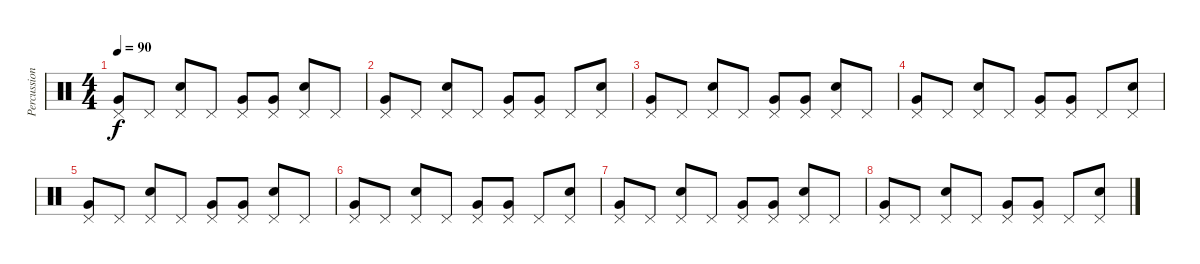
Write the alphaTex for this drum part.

\track ("Percussion" "Percussion") {instrument percussion}
\staff {score}
\articulation defaults
\ts (4 4)
\tempo 90
\clef neutral
\ks c
("Pedal Hi-Hat (hit)" "Very Low Tom (hit)").8{dy f} "Pedal Hi-Hat (hit)".8 ("Pedal Hi-Hat (hit)" "Snare (hit) 2").8 "Pedal Hi-Hat (hit)".8 ("Pedal Hi-Hat (hit)" "Very Low Tom (hit)").8 ("Pedal Hi-Hat (hit)" "Very Low Tom (hit)").8 ("Pedal Hi-Hat (hit)" "Snare (hit) 2").8 "Pedal Hi-Hat (hit)".8 |
("Pedal Hi-Hat (hit)" "Very Low Tom (hit)").8 "Pedal Hi-Hat (hit)".8 ("Pedal Hi-Hat (hit)" "Snare (hit) 2").8 "Pedal Hi-Hat (hit)".8 ("Pedal Hi-Hat (hit)" "Very Low Tom (hit)").8 ("Pedal Hi-Hat (hit)" "Very Low Tom (hit)").8 "Pedal Hi-Hat (hit)".8 ("Pedal Hi-Hat (hit)" "Snare (hit) 2").8 |
("Pedal Hi-Hat (hit)" "Very Low Tom (hit)").8 "Pedal Hi-Hat (hit)".8 ("Pedal Hi-Hat (hit)" "Snare (hit) 2").8 "Pedal Hi-Hat (hit)".8 ("Pedal Hi-Hat (hit)" "Very Low Tom (hit)").8 ("Pedal Hi-Hat (hit)" "Very Low Tom (hit)").8 ("Pedal Hi-Hat (hit)" "Snare (hit) 2").8 "Pedal Hi-Hat (hit)".8 |
("Pedal Hi-Hat (hit)" "Very Low Tom (hit)").8 "Pedal Hi-Hat (hit)".8 ("Pedal Hi-Hat (hit)" "Snare (hit) 2").8 "Pedal Hi-Hat (hit)".8 ("Pedal Hi-Hat (hit)" "Very Low Tom (hit)").8 ("Pedal Hi-Hat (hit)" "Very Low Tom (hit)").8 "Pedal Hi-Hat (hit)".8 ("Pedal Hi-Hat (hit)" "Snare (hit) 2").8 |
("Pedal Hi-Hat (hit)" "Very Low Tom (hit)").8 "Pedal Hi-Hat (hit)".8 ("Pedal Hi-Hat (hit)" "Snare (hit) 2").8 "Pedal Hi-Hat (hit)".8 ("Pedal Hi-Hat (hit)" "Very Low Tom (hit)").8 ("Pedal Hi-Hat (hit)" "Very Low Tom (hit)").8 ("Pedal Hi-Hat (hit)" "Snare (hit) 2").8 "Pedal Hi-Hat (hit)".8 |
("Pedal Hi-Hat (hit)" "Very Low Tom (hit)").8 "Pedal Hi-Hat (hit)".8 ("Pedal Hi-Hat (hit)" "Snare (hit) 2").8 "Pedal Hi-Hat (hit)".8 ("Pedal Hi-Hat (hit)" "Very Low Tom (hit)").8 ("Pedal Hi-Hat (hit)" "Very Low Tom (hit)").8 "Pedal Hi-Hat (hit)".8 ("Pedal Hi-Hat (hit)" "Snare (hit) 2").8 |
("Pedal Hi-Hat (hit)" "Very Low Tom (hit)").8 "Pedal Hi-Hat (hit)".8 ("Pedal Hi-Hat (hit)" "Snare (hit) 2").8 "Pedal Hi-Hat (hit)".8 ("Pedal Hi-Hat (hit)" "Very Low Tom (hit)").8 ("Pedal Hi-Hat (hit)" "Very Low Tom (hit)").8 ("Pedal Hi-Hat (hit)" "Snare (hit) 2").8 "Pedal Hi-Hat (hit)".8 |
("Pedal Hi-Hat (hit)" "Very Low Tom (hit)").8 "Pedal Hi-Hat (hit)".8 ("Pedal Hi-Hat (hit)" "Snare (hit) 2").8 "Pedal Hi-Hat (hit)".8 ("Pedal Hi-Hat (hit)" "Very Low Tom (hit)").8 ("Pedal Hi-Hat (hit)" "Very Low Tom (hit)").8 "Pedal Hi-Hat (hit)".8 ("Pedal Hi-Hat (hit)" "Snare (hit) 2").8
